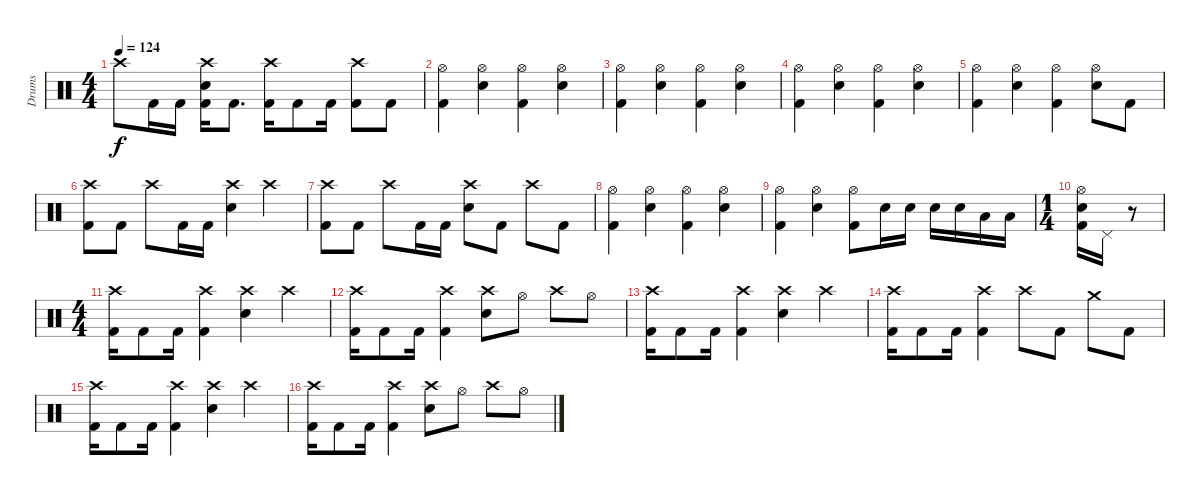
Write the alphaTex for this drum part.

\track ("Drums" "Drums") {instrument percussion}
\staff {score}
\articulation defaults
\ts (4 4)
\tempo 124
\clef neutral
\ks c "Crash high (hit)".8{dy f} "Kick (hit) 2".16 "Kick (hit) 2".16
("Crash high (hit)" "Snare (hit) 2" "Kick (hit) 2").16 "Kick (hit) 2".8{d} ("Crash high (hit)" "Kick (hit) 2").16 "Kick (hit) 2".8 "Kick (hit) 2".16 ("Crash high (hit)" "Kick (hit) 2").8 "Kick (hit) 2".8 |
("Hi-Hat (open)" "Kick (hit) 2").4 ("Hi-Hat (open)" "Snare (hit) 2").4 ("Hi-Hat (open)" "Kick (hit) 2").4 ("Hi-Hat (open)" "Snare (hit) 2").4 |
("Hi-Hat (open)" "Kick (hit) 2").4 ("Hi-Hat (open)" "Snare (hit) 2").4 ("Hi-Hat (open)" "Kick (hit) 2").4 ("Hi-Hat (open)" "Snare (hit) 2").4 |
("Hi-Hat (open)" "Kick (hit) 2").4 ("Hi-Hat (open)" "Snare (hit) 2").4 ("Hi-Hat (open)" "Kick (hit) 2").4 ("Hi-Hat (open)" "Snare (hit) 2").4 |
("Hi-Hat (open)" "Kick (hit) 2").4 ("Hi-Hat (open)" "Snare (hit) 2").4 ("Hi-Hat (open)" "Kick (hit) 2").4 ("Hi-Hat (open)" "Snare (hit) 2").8 "Kick (hit) 2".8 |
("Crash high (hit)" "Kick (hit) 2").8 "Kick (hit) 2".8 "Crash high (hit)".8 "Kick (hit) 2".16 "Kick (hit) 2".16 ("Crash high (hit)" "Snare (hit) 2").4 "Crash high (hit)".4 |
("Crash high (hit)" "Kick (hit) 2").8 "Kick (hit) 2".8 "Crash high (hit)".8 "Kick (hit) 2".16 "Kick (hit) 2".16 ("Crash high (hit)" "Snare (hit) 2").8 "Kick (hit) 2".8 "Crash high (hit)".8 "Kick (hit) 2".8 |
("Hi-Hat (open)" "Kick (hit) 2").4 ("Hi-Hat (open)" "Snare (hit) 2").4 ("Hi-Hat (open)" "Kick (hit) 2").4 ("Hi-Hat (open)" "Snare (hit) 2").4 |
("Hi-Hat (open)" "Kick (hit) 2").4 ("Hi-Hat (open)" "Snare (hit) 2").4 ("Hi-Hat (open)" "Kick (hit) 2").8 "Snare (hit) 2".16 "Snare (hit) 2".16 "Snare (hit) 2".16 "Snare (hit) 2".16 "Low Tom (hit)".16 "Low Tom (hit)".16 |
\ts (1 4)
("Hi-Hat (open)" "Snare (hit) 2" "Kick (hit) 2").16 "Pedal Hi-Hat (hit)".16 r.8 |
\ts (4 4)
("Crash high (hit)" "Kick (hit) 2").16 "Kick (hit) 2".8 "Kick (hit) 2".16 ("Crash high (hit)" "Kick (hit) 2").4 ("Crash high (hit)" "Snare (hit) 2").4 "Crash high (hit)".4 |
("Crash high (hit)" "Kick (hit) 2").16 "Kick (hit) 2".8 "Kick (hit) 2".16 ("Crash high (hit)" "Kick (hit) 2").4 ("Crash high (hit)" "Snare (hit) 2").8 "Hi-Hat (open)".8 "Crash high (hit)".8 "Hi-Hat (open)".8 |
("Crash high (hit)" "Kick (hit) 2").16 "Kick (hit) 2".8 "Kick (hit) 2".16 ("Crash high (hit)" "Kick (hit) 2").4 ("Crash high (hit)" "Snare (hit) 2").4 "Crash high (hit)".4 |
("Crash high (hit)" "Kick (hit) 2").16 "Kick (hit) 2".8 "Kick (hit) 2".16 ("Crash high (hit)" "Kick (hit) 2").4 "Crash high (hit)".8 "Kick (hit) 2".8 "Crash medium (hit)".8 "Kick (hit) 2".8 |
("Crash high (hit)" "Kick (hit) 2").16 "Kick (hit) 2".8 "Kick (hit) 2".16 ("Crash high (hit)" "Kick (hit) 2").4 ("Crash high (hit)" "Snare (hit) 2").4 "Crash high (hit)".4 |
("Crash high (hit)" "Kick (hit) 2").16 "Kick (hit) 2".8 "Kick (hit) 2".16 ("Crash high (hit)" "Kick (hit) 2").4 ("Crash high (hit)" "Snare (hit) 2").8 "Hi-Hat (open)".8 "Crash high (hit)".8 "Hi-Hat (open)".8
